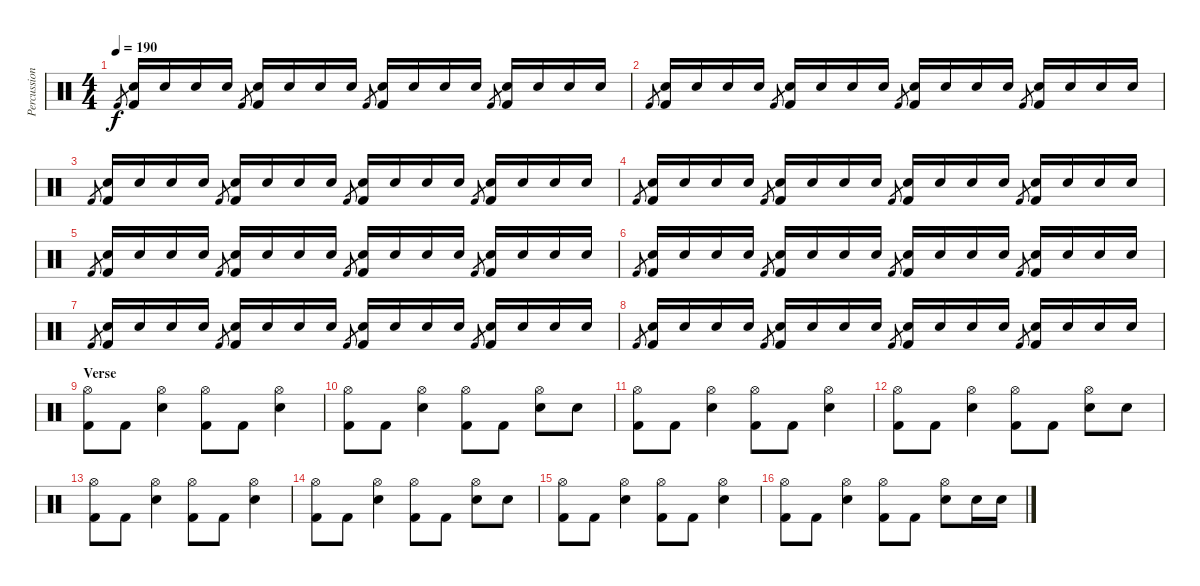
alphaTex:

\track ("Percussion" "Percussion") {instrument percussion}
\staff {score}
\articulation defaults
\ts (4 4)
\tempo 190
\clef neutral
\ks c "Kick (hit) 2".8{gr dy f}
("Snare (hit) 2" "Kick (hit) 2").16 "Snare (hit) 2".16 "Snare (hit) 2".16 "Snare (hit) 2".16 "Kick (hit) 2".8{gr} ("Snare (hit) 2" "Kick (hit) 2").16 "Snare (hit) 2".16 "Snare (hit) 2".16 "Snare (hit) 2".16 "Kick (hit) 2".8{gr} ("Snare (hit) 2" "Kick (hit) 2").16 "Snare (hit) 2".16 "Snare (hit) 2".16 "Snare (hit) 2".16 "Kick (hit) 2".8{gr} ("Snare (hit) 2" "Kick (hit) 2").16 "Snare (hit) 2".16 "Snare (hit) 2".16 "Snare (hit) 2".16 |
"Kick (hit) 2".8{gr} ("Snare (hit) 2" "Kick (hit) 2").16 "Snare (hit) 2".16 "Snare (hit) 2".16 "Snare (hit) 2".16 "Kick (hit) 2".8{gr} ("Snare (hit) 2" "Kick (hit) 2").16 "Snare (hit) 2".16 "Snare (hit) 2".16 "Snare (hit) 2".16 "Kick (hit) 2".8{gr} ("Snare (hit) 2" "Kick (hit) 2").16 "Snare (hit) 2".16 "Snare (hit) 2".16 "Snare (hit) 2".16 "Kick (hit) 2".8{gr} ("Snare (hit) 2" "Kick (hit) 2").16 "Snare (hit) 2".16 "Snare (hit) 2".16 "Snare (hit) 2".16 |
"Kick (hit) 2".8{gr} ("Snare (hit) 2" "Kick (hit) 2").16 "Snare (hit) 2".16 "Snare (hit) 2".16 "Snare (hit) 2".16 "Kick (hit) 2".8{gr} ("Snare (hit) 2" "Kick (hit) 2").16 "Snare (hit) 2".16 "Snare (hit) 2".16 "Snare (hit) 2".16 "Kick (hit) 2".8{gr} ("Snare (hit) 2" "Kick (hit) 2").16 "Snare (hit) 2".16 "Snare (hit) 2".16 "Snare (hit) 2".16 "Kick (hit) 2".8{gr} ("Snare (hit) 2" "Kick (hit) 2").16 "Snare (hit) 2".16 "Snare (hit) 2".16 "Snare (hit) 2".16 |
"Kick (hit) 2".8{gr} ("Snare (hit) 2" "Kick (hit) 2").16 "Snare (hit) 2".16 "Snare (hit) 2".16 "Snare (hit) 2".16 "Kick (hit) 2".8{gr} ("Snare (hit) 2" "Kick (hit) 2").16 "Snare (hit) 2".16 "Snare (hit) 2".16 "Snare (hit) 2".16 "Kick (hit) 2".8{gr} ("Snare (hit) 2" "Kick (hit) 2").16 "Snare (hit) 2".16 "Snare (hit) 2".16 "Snare (hit) 2".16 "Kick (hit) 2".8{gr} ("Snare (hit) 2" "Kick (hit) 2").16 "Snare (hit) 2".16 "Snare (hit) 2".16 "Snare (hit) 2".16 |
"Kick (hit) 2".8{gr} ("Snare (hit) 2" "Kick (hit) 2").16 "Snare (hit) 2".16 "Snare (hit) 2".16 "Snare (hit) 2".16 "Kick (hit) 2".8{gr} ("Snare (hit) 2" "Kick (hit) 2").16 "Snare (hit) 2".16 "Snare (hit) 2".16 "Snare (hit) 2".16 "Kick (hit) 2".8{gr} ("Snare (hit) 2" "Kick (hit) 2").16 "Snare (hit) 2".16 "Snare (hit) 2".16 "Snare (hit) 2".16 "Kick (hit) 2".8{gr} ("Snare (hit) 2" "Kick (hit) 2").16 "Snare (hit) 2".16 "Snare (hit) 2".16 "Snare (hit) 2".16 |
"Kick (hit) 2".8{gr} ("Snare (hit) 2" "Kick (hit) 2").16 "Snare (hit) 2".16 "Snare (hit) 2".16 "Snare (hit) 2".16 "Kick (hit) 2".8{gr} ("Snare (hit) 2" "Kick (hit) 2").16 "Snare (hit) 2".16 "Snare (hit) 2".16 "Snare (hit) 2".16 "Kick (hit) 2".8{gr} ("Snare (hit) 2" "Kick (hit) 2").16 "Snare (hit) 2".16 "Snare (hit) 2".16 "Snare (hit) 2".16 "Kick (hit) 2".8{gr} ("Snare (hit) 2" "Kick (hit) 2").16 "Snare (hit) 2".16 "Snare (hit) 2".16 "Snare (hit) 2".16 |
"Kick (hit) 2".8{gr} ("Snare (hit) 2" "Kick (hit) 2").16 "Snare (hit) 2".16 "Snare (hit) 2".16 "Snare (hit) 2".16 "Kick (hit) 2".8{gr} ("Snare (hit) 2" "Kick (hit) 2").16 "Snare (hit) 2".16 "Snare (hit) 2".16 "Snare (hit) 2".16 "Kick (hit) 2".8{gr} ("Snare (hit) 2" "Kick (hit) 2").16 "Snare (hit) 2".16 "Snare (hit) 2".16 "Snare (hit) 2".16 "Kick (hit) 2".8{gr} ("Snare (hit) 2" "Kick (hit) 2").16 "Snare (hit) 2".16 "Snare (hit) 2".16 "Snare (hit) 2".16 |
"Kick (hit) 2".8{gr} ("Snare (hit) 2" "Kick (hit) 2").16 "Snare (hit) 2".16 "Snare (hit) 2".16 "Snare (hit) 2".16 "Kick (hit) 2".8{gr} ("Snare (hit) 2" "Kick (hit) 2").16 "Snare (hit) 2".16 "Snare (hit) 2".16 "Snare (hit) 2".16 "Kick (hit) 2".8{gr} ("Snare (hit) 2" "Kick (hit) 2").16 "Snare (hit) 2".16 "Snare (hit) 2".16 "Snare (hit) 2".16 "Kick (hit) 2".8{gr} ("Snare (hit) 2" "Kick (hit) 2").16 "Snare (hit) 2".16 "Snare (hit) 2".16 "Snare (hit) 2".16 |
\section ("" "Verse")
("Hi-Hat (open)" "Kick (hit) 2").8 "Kick (hit) 2".8 ("Hi-Hat (open)" "Snare (hit) 2").4 ("Hi-Hat (open)" "Kick (hit) 2").8 "Kick (hit) 2".8 ("Hi-Hat (open)" "Snare (hit) 2").4 |
("Hi-Hat (open)" "Kick (hit) 2").8 "Kick (hit) 2".8 ("Hi-Hat (open)" "Snare (hit) 2").4 ("Hi-Hat (open)" "Kick (hit) 2").8 "Kick (hit) 2".8 ("Hi-Hat (open)" "Snare (hit) 2").8 "Snare (hit) 2".8 |
("Hi-Hat (open)" "Kick (hit) 2").8 "Kick (hit) 2".8 ("Hi-Hat (open)" "Snare (hit) 2").4 ("Hi-Hat (open)" "Kick (hit) 2").8 "Kick (hit) 2".8 ("Hi-Hat (open)" "Snare (hit) 2").4 |
("Hi-Hat (open)" "Kick (hit) 2").8 "Kick (hit) 2".8 ("Hi-Hat (open)" "Snare (hit) 2").4 ("Hi-Hat (open)" "Kick (hit) 2").8 "Kick (hit) 2".8 ("Hi-Hat (open)" "Snare (hit) 2").8 "Snare (hit) 2".8 |
("Hi-Hat (open)" "Kick (hit) 2").8 "Kick (hit) 2".8 ("Hi-Hat (open)" "Snare (hit) 2").4 ("Hi-Hat (open)" "Kick (hit) 2").8 "Kick (hit) 2".8 ("Hi-Hat (open)" "Snare (hit) 2").4 |
("Hi-Hat (open)" "Kick (hit) 2").8 "Kick (hit) 2".8 ("Hi-Hat (open)" "Snare (hit) 2").4 ("Hi-Hat (open)" "Kick (hit) 2").8 "Kick (hit) 2".8 ("Hi-Hat (open)" "Snare (hit) 2").8 "Snare (hit) 2".8 |
("Hi-Hat (open)" "Kick (hit) 2").8 "Kick (hit) 2".8 ("Hi-Hat (open)" "Snare (hit) 2").4 ("Hi-Hat (open)" "Kick (hit) 2").8 "Kick (hit) 2".8 ("Hi-Hat (open)" "Snare (hit) 2").4 |
("Hi-Hat (open)" "Kick (hit) 2").8 "Kick (hit) 2".8 ("Hi-Hat (open)" "Snare (hit) 2").4 ("Hi-Hat (open)" "Kick (hit) 2").8 "Kick (hit) 2".8 ("Hi-Hat (open)" "Snare (hit) 2").8 "Snare (hit) 2".16 "Snare (hit) 2".16
